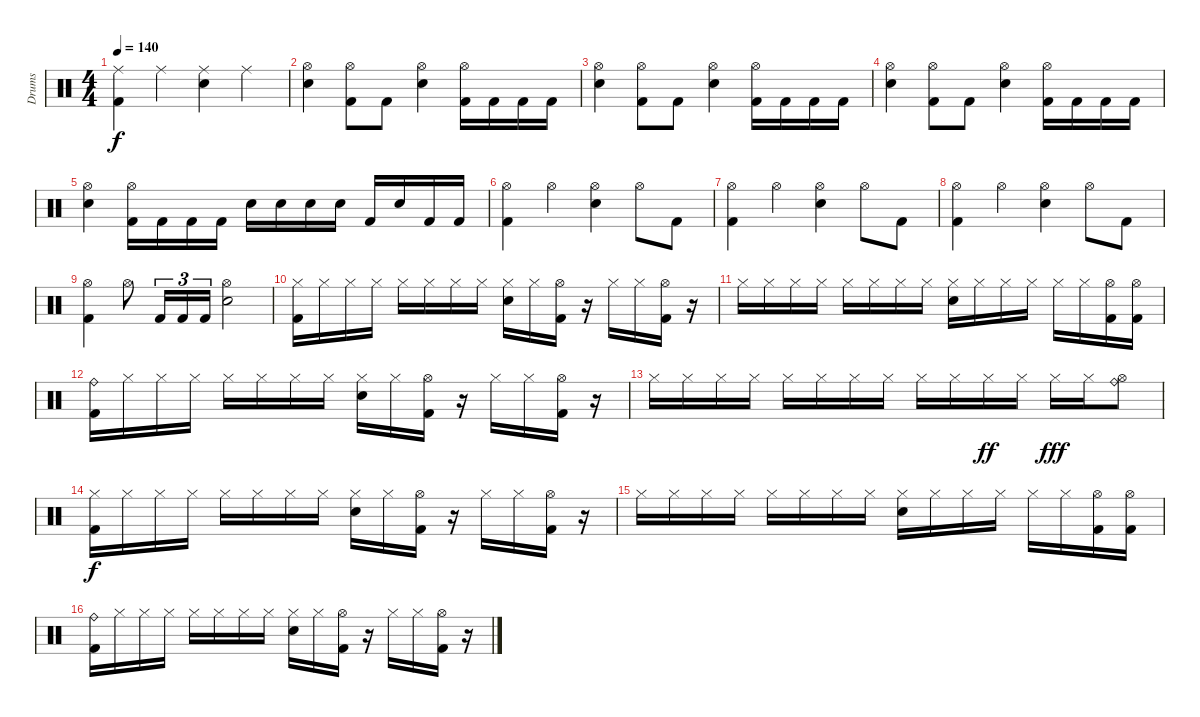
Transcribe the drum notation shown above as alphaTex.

\track ("Drums" "Drums") {instrument percussion}
\staff {score}
\articulation defaults
\ts (4 4)
\tempo 140
\clef neutral
\ks c
("Ride (middle)" "Kick (hit) 2").4{dy f} "Ride (middle)".4 ("Ride (middle)" "Electric Snare (hit)").4 "Ride (middle)".4 |
("Hi-Hat (open)" "Electric Snare (hit)").4 ("Hi-Hat (open)" "Kick (hit) 2").8 "Kick (hit) 2".8 ("Hi-Hat (open)" "Electric Snare (hit)").4 ("Hi-Hat (open)" "Kick (hit) 2").16 "Kick (hit) 2".16 "Kick (hit) 2".16 "Kick (hit) 2".16 |
("Hi-Hat (open)" "Electric Snare (hit)").4 ("Hi-Hat (open)" "Kick (hit) 2").8 "Kick (hit) 2".8 ("Hi-Hat (open)" "Electric Snare (hit)").4 ("Hi-Hat (open)" "Kick (hit) 2").16 "Kick (hit) 2".16 "Kick (hit) 2".16 "Kick (hit) 2".16 |
("Hi-Hat (open)" "Electric Snare (hit)").4 ("Hi-Hat (open)" "Kick (hit) 2").8 "Kick (hit) 2".8 ("Hi-Hat (open)" "Electric Snare (hit)").4 ("Hi-Hat (open)" "Kick (hit) 2").16 "Kick (hit) 2".16 "Kick (hit) 2".16 "Kick (hit) 2".16 |
("Hi-Hat (open)" "Electric Snare (hit)").4 ("Hi-Hat (open)" "Kick (hit) 2").16 "Kick (hit) 2".16 "Kick (hit) 2".16 "Kick (hit) 2".16 "Electric Snare (hit)".16 "Electric Snare (hit)".16 "Electric Snare (hit)".16 "Electric Snare (hit)".16 "Kick (hit) 2".16 "Electric Snare (hit)".16 "Kick (hit) 2".16 "Kick (hit) 2".16 |
("Hi-Hat (open)" "Kick (hit) 2").4 "Hi-Hat (open)".4 ("Hi-Hat (open)" "Electric Snare (hit)").4 "Hi-Hat (open)".8 "Kick (hit) 2".8 |
("Hi-Hat (open)" "Kick (hit) 2").4 "Hi-Hat (open)".4 ("Hi-Hat (open)" "Electric Snare (hit)").4 "Hi-Hat (open)".8 "Kick (hit) 2".8 |
("Hi-Hat (open)" "Kick (hit) 2").4 "Hi-Hat (open)".4 ("Hi-Hat (open)" "Electric Snare (hit)").4 "Hi-Hat (open)".8 "Kick (hit) 2".8 |
("Hi-Hat (open)" "Kick (hit) 2").4 "Hi-Hat (open)".8 "Kick (hit) 2".16{tu (3 2)} "Kick (hit) 2".16{tu (3 2)} "Kick (hit) 2".16{tu (3 2)} ("Hi-Hat (open)" "Electric Snare (hit)").2 |
("Hi-Hat (closed)" "Kick (hit) 2").16 "Hi-Hat (closed)".16 "Hi-Hat (closed)".16 "Hi-Hat (closed)".16 "Hi-Hat (closed)".16 "Hi-Hat (closed)".16 "Hi-Hat (closed)".16 "Hi-Hat (closed)".16 ("Hi-Hat (closed)" "Electric Snare (hit)").16 "Hi-Hat (closed)".16 ("Hi-Hat (open)" "Kick (hit) 2").16 r.16 "Hi-Hat (closed)".16 "Hi-Hat (closed)".16 ("Hi-Hat (open)" "Kick (hit) 2").16 r.16 |
"Hi-Hat (closed)".16 "Hi-Hat (closed)".16 "Hi-Hat (closed)".16 "Hi-Hat (closed)".16 "Hi-Hat (closed)".16 "Hi-Hat (closed)".16 "Hi-Hat (closed)".16 "Hi-Hat (closed)".16 ("Hi-Hat (closed)" "Electric Snare (hit)").16 "Hi-Hat (closed)".16 "Hi-Hat (closed)".16 "Hi-Hat (closed)".16 "Hi-Hat (closed)".16 "Hi-Hat (closed)".16 ("Hi-Hat (open)" "Kick (hit) 2").16 ("Hi-Hat (open)" "Kick (hit) 2").16 |
("Ride (bell)" "Kick (hit) 2").16 "Hi-Hat (closed)".16 "Hi-Hat (closed)".16 "Hi-Hat (closed)".16 "Hi-Hat (closed)".16 "Hi-Hat (closed)".16 "Hi-Hat (closed)".16 "Hi-Hat (closed)".16 ("Hi-Hat (closed)" "Electric Snare (hit)").16 "Hi-Hat (closed)".16 ("Hi-Hat (open)" "Kick (hit) 2").16 r.16 "Hi-Hat (closed)".16 "Hi-Hat (closed)".16 ("Hi-Hat (open)" "Kick (hit) 2").16 r.16 |
"Hi-Hat (closed)".16 "Hi-Hat (closed)".16 "Hi-Hat (closed)".16 "Hi-Hat (closed)".16 "Hi-Hat (closed)".16 "Hi-Hat (closed)".16 "Hi-Hat (closed)".16 "Hi-Hat (closed)".16 "Hi-Hat (closed)".16 "Hi-Hat (closed)".16 "Hi-Hat (closed)".16{dy ff} "Hi-Hat (closed)".16 "Hi-Hat (closed)".16{dy fff} "Hi-Hat (closed)".16 ("Hi-Hat (open)" "Ride (bell)").8 |
("Hi-Hat (closed)" "Kick (hit) 2").16{dy f} "Hi-Hat (closed)".16 "Hi-Hat (closed)".16 "Hi-Hat (closed)".16 "Hi-Hat (closed)".16 "Hi-Hat (closed)".16 "Hi-Hat (closed)".16 "Hi-Hat (closed)".16 ("Hi-Hat (closed)" "Electric Snare (hit)").16 "Hi-Hat (closed)".16 ("Hi-Hat (open)" "Kick (hit) 2").16 r.16 "Hi-Hat (closed)".16 "Hi-Hat (closed)".16 ("Hi-Hat (open)" "Kick (hit) 2").16 r.16 |
"Hi-Hat (closed)".16 "Hi-Hat (closed)".16 "Hi-Hat (closed)".16 "Hi-Hat (closed)".16 "Hi-Hat (closed)".16 "Hi-Hat (closed)".16 "Hi-Hat (closed)".16 "Hi-Hat (closed)".16 ("Hi-Hat (closed)" "Electric Snare (hit)").16 "Hi-Hat (closed)".16 "Hi-Hat (closed)".16 "Hi-Hat (closed)".16 "Hi-Hat (closed)".16 "Hi-Hat (closed)".16 ("Hi-Hat (open)" "Kick (hit) 2").16 ("Hi-Hat (open)" "Kick (hit) 2").16 |
("Ride (bell)" "Kick (hit) 2").16 "Hi-Hat (closed)".16 "Hi-Hat (closed)".16 "Hi-Hat (closed)".16 "Hi-Hat (closed)".16 "Hi-Hat (closed)".16 "Hi-Hat (closed)".16 "Hi-Hat (closed)".16 ("Hi-Hat (closed)" "Electric Snare (hit)").16 "Hi-Hat (closed)".16 ("Hi-Hat (open)" "Kick (hit) 2").16 r.16 "Hi-Hat (closed)".16 "Hi-Hat (closed)".16 ("Hi-Hat (open)" "Kick (hit) 2").16 r.16
